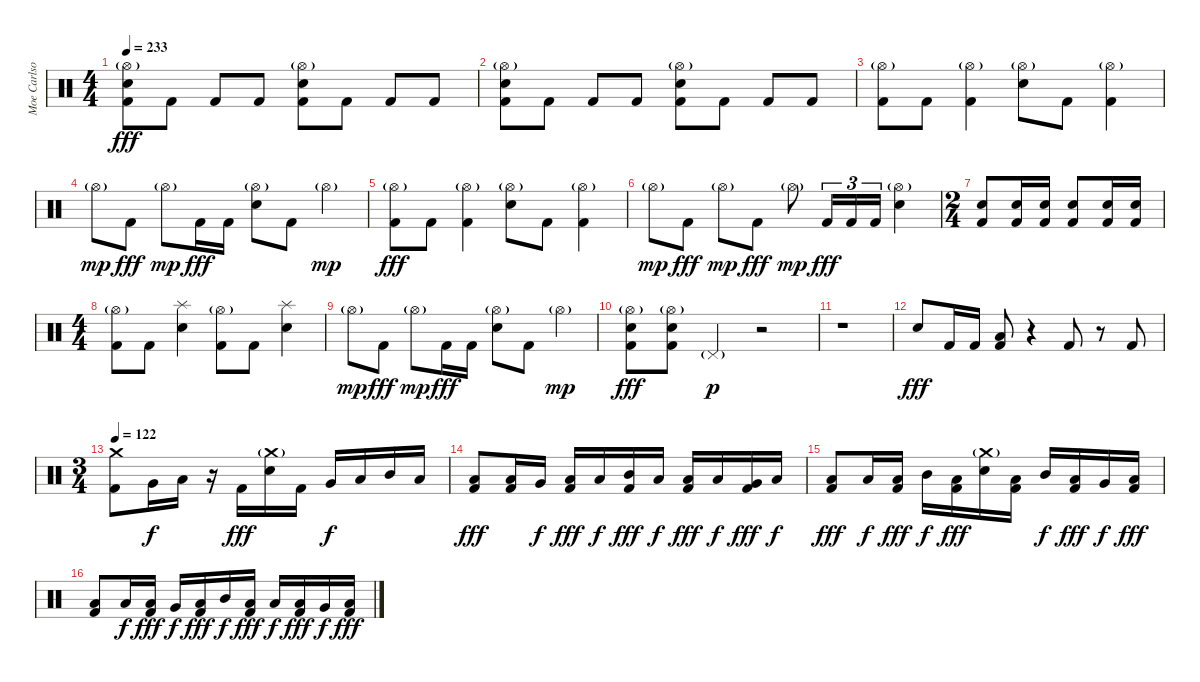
\track ("Moe Carlson" "Moe Carlso") {instrument percussion}
\staff {score}
\articulation defaults
\ts (4 4)
\tempo 233
\clef neutral
\ks c
("Hi-Hat (open)"{g} "Electric Snare (hit)" "Kick (hit) 2").8{dy fff} "Kick (hit) 2".8 "Kick (hit) 2".8 "Kick (hit) 2".8 ("Hi-Hat (open)"{g} "Electric Snare (hit)" "Kick (hit) 2").8 "Kick (hit) 2".8 "Kick (hit) 2".8 "Kick (hit) 2".8 |
("Hi-Hat (open)"{g} "Electric Snare (hit)" "Kick (hit) 2").8 "Kick (hit) 2".8 "Kick (hit) 2".8 "Kick (hit) 2".8 ("Hi-Hat (open)"{g} "Electric Snare (hit)" "Kick (hit) 2").8 "Kick (hit) 2".8 "Kick (hit) 2".8 "Kick (hit) 2".8 |
("Hi-Hat (open)"{g} "Kick (hit) 2").8 "Kick (hit) 2".8 ("Hi-Hat (open)"{g} "Kick (hit) 2").4 ("Hi-Hat (open)"{g} "Electric Snare (hit)").8 "Kick (hit) 2".8 ("Hi-Hat (open)"{g} "Kick (hit) 2").4 |
"Hi-Hat (open)"{g}.8{dy mp} "Kick (hit) 2".8{dy fff} "Hi-Hat (open)"{g}.8{dy mp} "Kick (hit) 2".16{dy fff} "Kick (hit) 2".16 ("Hi-Hat (open)"{g} "Electric Snare (hit)").8 "Kick (hit) 2".8 "Hi-Hat (open)"{g}.4{dy mp} |
("Hi-Hat (open)"{g} "Kick (hit) 2").8{dy fff} "Kick (hit) 2".8 ("Hi-Hat (open)"{g} "Kick (hit) 2").4 ("Hi-Hat (open)"{g} "Electric Snare (hit)").8 "Kick (hit) 2".8 ("Hi-Hat (open)"{g} "Kick (hit) 2").4 |
"Hi-Hat (open)"{g}.8{dy mp} "Kick (hit) 2".8{dy fff} "Hi-Hat (open)"{g}.8{dy mp} "Kick (hit) 2".8{dy fff} "Hi-Hat (open)"{g}.8{dy mp} "Kick (hit) 2".16{tu (3 2) dy fff} "Kick (hit) 2".16{tu (3 2)} "Kick (hit) 2".16{tu (3 2)} ("Hi-Hat (open)"{g} "Electric Snare (hit)").4 |
\ts (2 4)
("Electric Snare (hit)" "Kick (hit) 2").8 ("Electric Snare (hit)" "Kick (hit) 2").16 ("Electric Snare (hit)" "Kick (hit) 2").16 ("Electric Snare (hit)" "Kick (hit) 2").8 ("Electric Snare (hit)" "Kick (hit) 2").16 ("Electric Snare (hit)" "Kick (hit) 2").16 |
\ts (4 4)
("Hi-Hat (open)"{g} "Kick (hit) 2").8 "Kick (hit) 2".8 ("Splash (hit)" "Electric Snare (hit)").4 ("Hi-Hat (open)"{g} "Kick (hit) 2").8 "Kick (hit) 2".8 ("Splash (hit)" "Electric Snare (hit)").4 |
"Hi-Hat (open)"{g}.8{dy mp} "Kick (hit) 2".8{dy fff} "Hi-Hat (open)"{g}.8{dy mp} "Kick (hit) 2".16{dy fff} "Kick (hit) 2".16 ("Hi-Hat (open)"{g} "Electric Snare (hit)").8 "Kick (hit) 2".8 "Hi-Hat (open)"{g}.4{dy mp} |
("Hi-Hat (open)"{g} "Electric Snare (hit)" "Kick (hit) 2").8{dy fff} ("Hi-Hat (open)"{g} "Electric Snare (hit)" "Kick (hit) 2").8 "Pedal Hi-Hat (hit)"{g}.4{dy p} r.2 |
r.1 |
"Electric Snare (hit)".8{dy fff} "Kick (hit) 2".16 "Kick (hit) 2".16 ("Low Floor Tom (hit)" "Kick (hit) 2").8 r.4 "Kick (hit) 2".8 r.8 "Kick (hit) 2".8 |
\ts (3 4)
\tempo 122
("Crash medium (hit)" "Kick (hit) 2").8 "Very Low Tom (hit)".16{dy f} "Low Floor Tom (hit)".16 r.16 "Kick (hit) 2".16{dy fff} ("Crash medium (hit)"{g} "Electric Snare (hit)").16 "Kick (hit) 2".16 "Very Low Tom (hit)".16{dy f} "Low Tom (hit)".16 "Mid Tom (hit)".16 "Low Tom (hit)".16 |
("Low Floor Tom (hit)" "Kick (hit) 2").8{dy fff} ("Low Tom (hit)" "Kick (hit) 2").16 "Very Low Tom (hit)".16{dy f} ("Low Tom (hit)" "Kick (hit) 2").16{dy fff} "Low Floor Tom (hit)".16{dy f} ("Mid Tom (hit)" "Kick (hit) 2").16{dy fff} "Low Floor Tom (hit)".16{dy f} ("Low Tom (hit)" "Kick (hit) 2").16{dy fff} "Low Floor Tom (hit)".16{dy f} ("Very Low Tom (hit)" "Kick (hit) 2").16{dy fff} "Low Floor Tom (hit)".16{dy f} |
("Low Floor Tom (hit)" "Kick (hit) 2").8{dy fff} "Low Tom (hit)".16{dy f} ("Low Floor Tom (hit)" "Kick (hit) 2").16{dy fff} "Mid Tom (hit)".16{dy f} ("Low Floor Tom (hit)" "Kick (hit) 2").16{dy fff} ("Crash medium (hit)"{g} "Electric Snare (hit)").16 ("Low Floor Tom (hit)" "Kick (hit) 2").16 "Mid Tom (hit)".16{dy f} ("Low Floor Tom (hit)" "Kick (hit) 2").16{dy fff} "Very Low Tom (hit)".16{dy f} ("Low Floor Tom (hit)" "Kick (hit) 2").16{dy fff} |
("Low Floor Tom (hit)" "Kick (hit) 2").8 "Low Tom (hit)".16{dy f} ("Low Floor Tom (hit)" "Kick (hit) 2").16{dy fff} "Very Low Tom (hit)".16{dy f} ("Low Floor Tom (hit)" "Kick (hit) 2").16{dy fff} "Mid Tom (hit)".16{dy f} ("Low Floor Tom (hit)" "Kick (hit) 2").16{dy fff} "Low Tom (hit)".16{dy f} ("Low Floor Tom (hit)" "Kick (hit) 2").16{dy fff} "Very Low Tom (hit)".16{dy f} ("Low Floor Tom (hit)" "Kick (hit) 2").16{dy fff}
